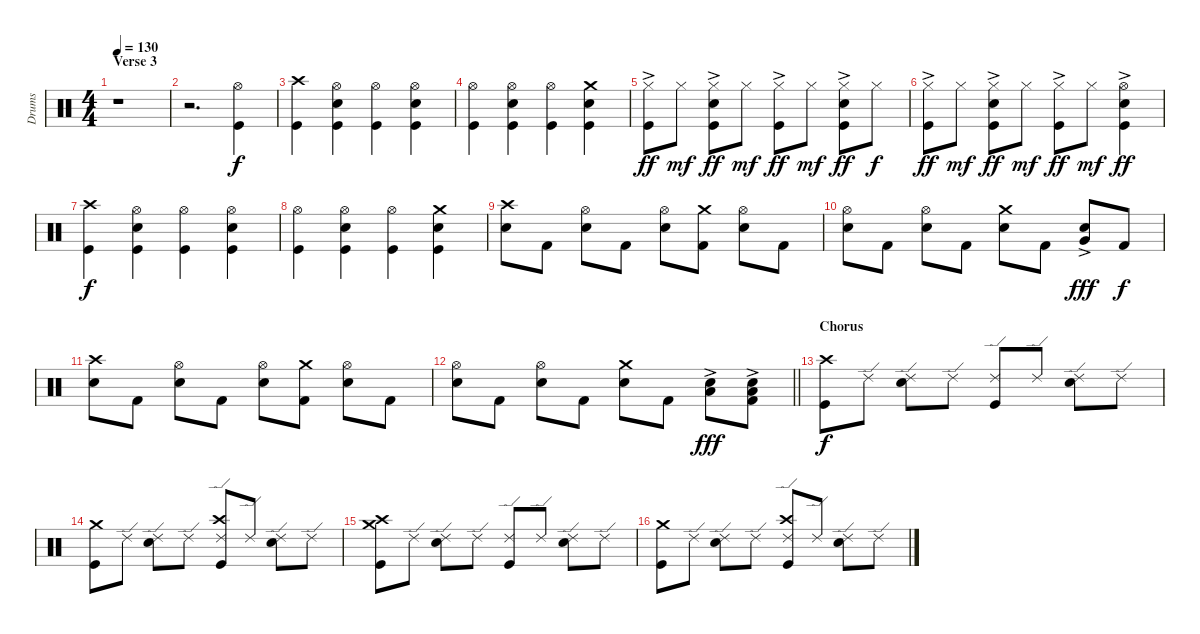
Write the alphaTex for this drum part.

\track ("Drums" "Drums") {instrument percussion}
\staff {score}
\articulation defaults
\ts (4 4)
\section ("" "Verse 3")
\tempo 130
\clef neutral
\ks c
r.1{dy f} |
r.2{d} ("Hi-Hat (open)" "Kick (hit)").4 |
("Crash high (hit)" "Kick (hit)").4 ("Hi-Hat (open)" "Snare (hit) 2" "Kick (hit)").4 ("Hi-Hat (open)" "Kick (hit)").4 ("Hi-Hat (open)" "Snare (hit) 2" "Kick (hit)").4 |
("Hi-Hat (open)" "Kick (hit)").4 ("Hi-Hat (open)" "Snare (hit) 2" "Kick (hit)").4 ("Hi-Hat (open)" "Kick (hit)").4 ("Crash medium (hit)" "Snare (hit) 2" "Kick (hit)").4 |
("Hi-Hat (closed)"{ac} "Kick (hit)").8{dy ff} "Hi-Hat (closed)".8{dy mf} ("Hi-Hat (closed)"{ac} "Snare (hit) 2" "Kick (hit)").8{dy ff} "Hi-Hat (closed)".8{dy mf} ("Hi-Hat (closed)"{ac} "Kick (hit)").8{dy ff} "Hi-Hat (closed)".8{dy mf} ("Hi-Hat (closed)"{ac} "Snare (hit) 2" "Kick (hit)").8{dy ff} "Hi-Hat (closed)".8{dy f} |
("Hi-Hat (closed)"{ac} "Kick (hit)").8{dy ff} "Hi-Hat (closed)".8{dy mf} ("Hi-Hat (closed)"{ac} "Snare (hit) 2" "Kick (hit)").8{dy ff} "Hi-Hat (closed)".8{dy mf} ("Hi-Hat (closed)"{ac} "Kick (hit)").8{dy ff} "Hi-Hat (closed)".8{dy mf} ("Hi-Hat (open)"{ac} "Snare (hit) 2" "Kick (hit)").4{dy ff} |
("Crash high (hit)" "Kick (hit)").4{dy f} ("Hi-Hat (open)" "Snare (hit) 2" "Kick (hit)").4 ("Hi-Hat (open)" "Kick (hit)").4 ("Hi-Hat (open)" "Snare (hit) 2" "Kick (hit)").4 |
("Hi-Hat (open)" "Kick (hit)").4 ("Hi-Hat (open)" "Snare (hit) 2" "Kick (hit)").4 ("Hi-Hat (open)" "Kick (hit)").4 ("Crash medium (hit)" "Snare (hit) 2" "Kick (hit)").4 |
("Crash high (hit)" "Snare (hit) 2").8 "Kick (hit) 2".8 ("Hi-Hat (open)" "Snare (hit) 2").8 "Kick (hit) 2".8 ("Hi-Hat (open)" "Snare (hit) 2").8 ("Crash medium (hit)" "Kick (hit) 2").8 ("Hi-Hat (open)" "Snare (hit) 2").8 "Kick (hit) 2".8 |
("Hi-Hat (open)" "Snare (hit) 2").8 "Kick (hit) 2".8 ("Hi-Hat (open)" "Snare (hit) 2").8 "Kick (hit) 2".8 ("Crash medium (hit)" "Snare (hit) 2").8 "Kick (hit) 2".8 ("Very Low Tom (hit)"{ac} "Snare (hit) 2").8{dy fff} "Kick (hit) 2".8{dy f} |
("Crash high (hit)" "Snare (hit) 2").8 "Kick (hit) 2".8 ("Hi-Hat (open)" "Snare (hit) 2").8 "Kick (hit) 2".8 ("Hi-Hat (open)" "Snare (hit) 2").8 ("Crash medium (hit)" "Kick (hit) 2").8 ("Hi-Hat (open)" "Snare (hit) 2").8 "Kick (hit) 2".8 |
\barLineRight lightlight
("Hi-Hat (open)" "Snare (hit) 2").8 "Kick (hit) 2".8 ("Hi-Hat (open)" "Snare (hit) 2").8 "Kick (hit) 2".8 ("Crash medium (hit)" "Snare (hit) 2").8 "Kick (hit) 2".8 ("Low Floor Tom (hit)"{ac} "Snare (hit) 2").8{dy fff} ("Low Floor Tom (hit)"{ac} "Snare (hit) 2" "Kick (hit) 2").8 |
\section ("" "Chorus")
("Crash high (hit)" "Kick (hit)").8{dy f} "Ride (edge) 2".8 ("Ride (edge) 2" "Snare (hit) 2").8 "Ride (edge) 2".8 ("Ride (edge) 2" "Kick (hit)").8 "Ride (edge) 2".8 ("Ride (edge) 2" "Snare (hit) 2").8 "Ride (edge) 2".8 |
("Crash medium (hit)" "Kick (hit)").8 "Ride (edge) 2".8 ("Ride (edge) 2" "Snare (hit) 2").8 "Ride (edge) 2".8 ("Crash high (hit)" "Ride (edge) 2" "Kick (hit)").8 "Ride (edge) 2".8 ("Ride (edge) 2" "Snare (hit) 2").8 "Ride (edge) 2".8 |
("Crash high (hit)" "Crash medium (hit)" "Kick (hit)").8 "Ride (edge) 2".8 ("Ride (edge) 2" "Snare (hit) 2").8 "Ride (edge) 2".8 ("Ride (edge) 2" "Kick (hit)").8 "Ride (edge) 2".8 ("Ride (edge) 2" "Snare (hit) 2").8 "Ride (edge) 2".8 |
("Crash medium (hit)" "Kick (hit)").8 "Ride (edge) 2".8 ("Ride (edge) 2" "Snare (hit) 2").8 "Ride (edge) 2".8 ("Crash high (hit)" "Ride (edge) 2" "Kick (hit)").8 "Ride (edge) 2".8 ("Ride (edge) 2" "Snare (hit) 2").8 "Ride (edge) 2".8
